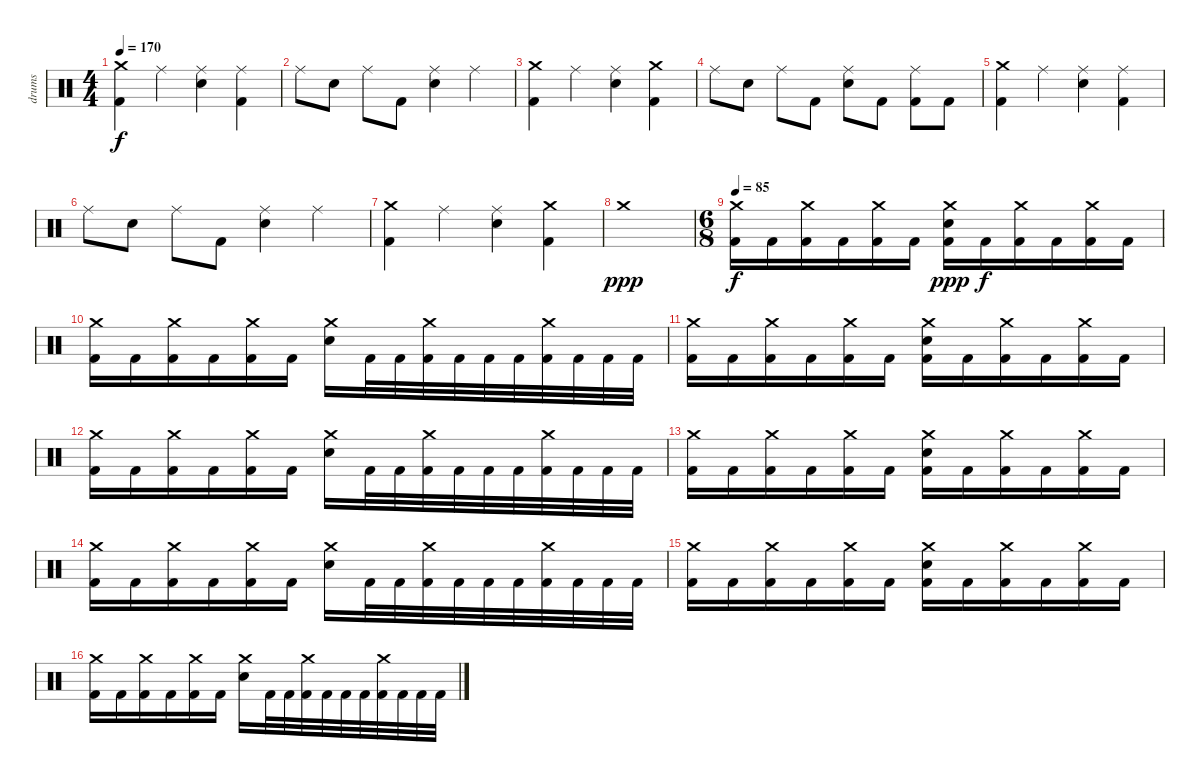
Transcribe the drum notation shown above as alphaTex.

\track ("drums" "drums") {instrument percussion}
\staff {score}
\articulation defaults
\ts (4 4)
\tempo 170
\clef neutral
\ks c
("Crash medium (hit)" "Kick (hit) 2").4{dy f} "Ride (middle)".4 ("Ride (middle)" "Electric Snare (hit)").4 ("Ride (middle)" "Kick (hit) 2").4 |
"Ride (middle)".8 "Electric Snare (hit)".8 "Ride (middle)".8 "Kick (hit) 2".8 ("Ride (middle)" "Electric Snare (hit)").4 "Ride (middle)".4 |
("Crash medium (hit)" "Kick (hit) 2").4 "Ride (middle)".4 ("Ride (middle)" "Electric Snare (hit)").4 ("Crash medium (hit)" "Kick (hit) 2").4 |
"Ride (middle)".8 "Electric Snare (hit)".8 "Ride (middle)".8 "Kick (hit) 2".8 ("Ride (middle)" "Electric Snare (hit)").8 "Kick (hit) 2".8 ("Ride (middle)" "Kick (hit) 2").8 "Kick (hit) 2".8 |
("Crash medium (hit)" "Kick (hit) 2").4 "Ride (middle)".4 ("Ride (middle)" "Electric Snare (hit)").4 ("Ride (middle)" "Kick (hit) 2").4 |
"Ride (middle)".8 "Electric Snare (hit)".8 "Ride (middle)".8 "Kick (hit) 2".8 ("Ride (middle)" "Electric Snare (hit)").4 "Ride (middle)".4 |
("Crash medium (hit)" "Kick (hit) 2").4 "Ride (middle)".4 ("Ride (middle)" "Electric Snare (hit)").4 ("Crash medium (hit)" "Kick (hit) 2").4 |
"Crash medium (hit)".1{dy ppp} |
\ts (6 8)
\tempo 85
("Crash medium (hit)" "Kick (hit) 2").16{dy f} "Kick (hit) 2".16 ("Crash medium (hit)" "Kick (hit) 2").16 "Kick (hit) 2".16 ("Crash medium (hit)" "Kick (hit) 2").16 "Kick (hit) 2".16 ("Crash medium (hit)" "Electric Snare (hit)" "Kick (hit) 2").16{dy ppp} "Kick (hit) 2".16{dy f} ("Crash medium (hit)" "Kick (hit) 2").16 "Kick (hit) 2".16 ("Crash medium (hit)" "Kick (hit) 2").16 "Kick (hit) 2".16 |
("Crash medium (hit)" "Kick (hit) 2").16 "Kick (hit) 2".16 ("Crash medium (hit)" "Kick (hit) 2").16 "Kick (hit) 2".16 ("Crash medium (hit)" "Kick (hit) 2").16 "Kick (hit) 2".16 ("Crash medium (hit)" "Electric Snare (hit)").16 "Kick (hit) 2".32 "Kick (hit) 2".32 ("Crash medium (hit)" "Kick (hit) 2").32 "Kick (hit) 2".32 "Kick (hit) 2".32 "Kick (hit) 2".32 ("Crash medium (hit)" "Kick (hit) 2").32 "Kick (hit) 2".32 "Kick (hit) 2".32 "Kick (hit) 2".32 |
("Crash medium (hit)" "Kick (hit) 2").16 "Kick (hit) 2".16 ("Crash medium (hit)" "Kick (hit) 2").16 "Kick (hit) 2".16 ("Crash medium (hit)" "Kick (hit) 2").16 "Kick (hit) 2".16 ("Crash medium (hit)" "Electric Snare (hit)" "Kick (hit) 2").16 "Kick (hit) 2".16 ("Crash medium (hit)" "Kick (hit) 2").16 "Kick (hit) 2".16 ("Crash medium (hit)" "Kick (hit) 2").16 "Kick (hit) 2".16 |
("Crash medium (hit)" "Kick (hit) 2").16 "Kick (hit) 2".16 ("Crash medium (hit)" "Kick (hit) 2").16 "Kick (hit) 2".16 ("Crash medium (hit)" "Kick (hit) 2").16 "Kick (hit) 2".16 ("Crash medium (hit)" "Electric Snare (hit)").16 "Kick (hit) 2".32 "Kick (hit) 2".32 ("Crash medium (hit)" "Kick (hit) 2").32 "Kick (hit) 2".32 "Kick (hit) 2".32 "Kick (hit) 2".32 ("Crash medium (hit)" "Kick (hit) 2").32 "Kick (hit) 2".32 "Kick (hit) 2".32 "Kick (hit) 2".32 |
("Crash medium (hit)" "Kick (hit) 2").16 "Kick (hit) 2".16 ("Crash medium (hit)" "Kick (hit) 2").16 "Kick (hit) 2".16 ("Crash medium (hit)" "Kick (hit) 2").16 "Kick (hit) 2".16 ("Crash medium (hit)" "Electric Snare (hit)" "Kick (hit) 2").16 "Kick (hit) 2".16 ("Crash medium (hit)" "Kick (hit) 2").16 "Kick (hit) 2".16 ("Crash medium (hit)" "Kick (hit) 2").16 "Kick (hit) 2".16 |
("Crash medium (hit)" "Kick (hit) 2").16 "Kick (hit) 2".16 ("Crash medium (hit)" "Kick (hit) 2").16 "Kick (hit) 2".16 ("Crash medium (hit)" "Kick (hit) 2").16 "Kick (hit) 2".16 ("Crash medium (hit)" "Electric Snare (hit)").16 "Kick (hit) 2".32 "Kick (hit) 2".32 ("Crash medium (hit)" "Kick (hit) 2").32 "Kick (hit) 2".32 "Kick (hit) 2".32 "Kick (hit) 2".32 ("Crash medium (hit)" "Kick (hit) 2").32 "Kick (hit) 2".32 "Kick (hit) 2".32 "Kick (hit) 2".32 |
("Crash medium (hit)" "Kick (hit) 2").16 "Kick (hit) 2".16 ("Crash medium (hit)" "Kick (hit) 2").16 "Kick (hit) 2".16 ("Crash medium (hit)" "Kick (hit) 2").16 "Kick (hit) 2".16 ("Crash medium (hit)" "Electric Snare (hit)" "Kick (hit) 2").16 "Kick (hit) 2".16 ("Crash medium (hit)" "Kick (hit) 2").16 "Kick (hit) 2".16 ("Crash medium (hit)" "Kick (hit) 2").16 "Kick (hit) 2".16 |
("Crash medium (hit)" "Kick (hit) 2").16 "Kick (hit) 2".16 ("Crash medium (hit)" "Kick (hit) 2").16 "Kick (hit) 2".16 ("Crash medium (hit)" "Kick (hit) 2").16 "Kick (hit) 2".16 ("Crash medium (hit)" "Electric Snare (hit)").16 "Kick (hit) 2".32 "Kick (hit) 2".32 ("Crash medium (hit)" "Kick (hit) 2").32 "Kick (hit) 2".32 "Kick (hit) 2".32 "Kick (hit) 2".32 ("Crash medium (hit)" "Kick (hit) 2").32 "Kick (hit) 2".32 "Kick (hit) 2".32 "Kick (hit) 2".32
